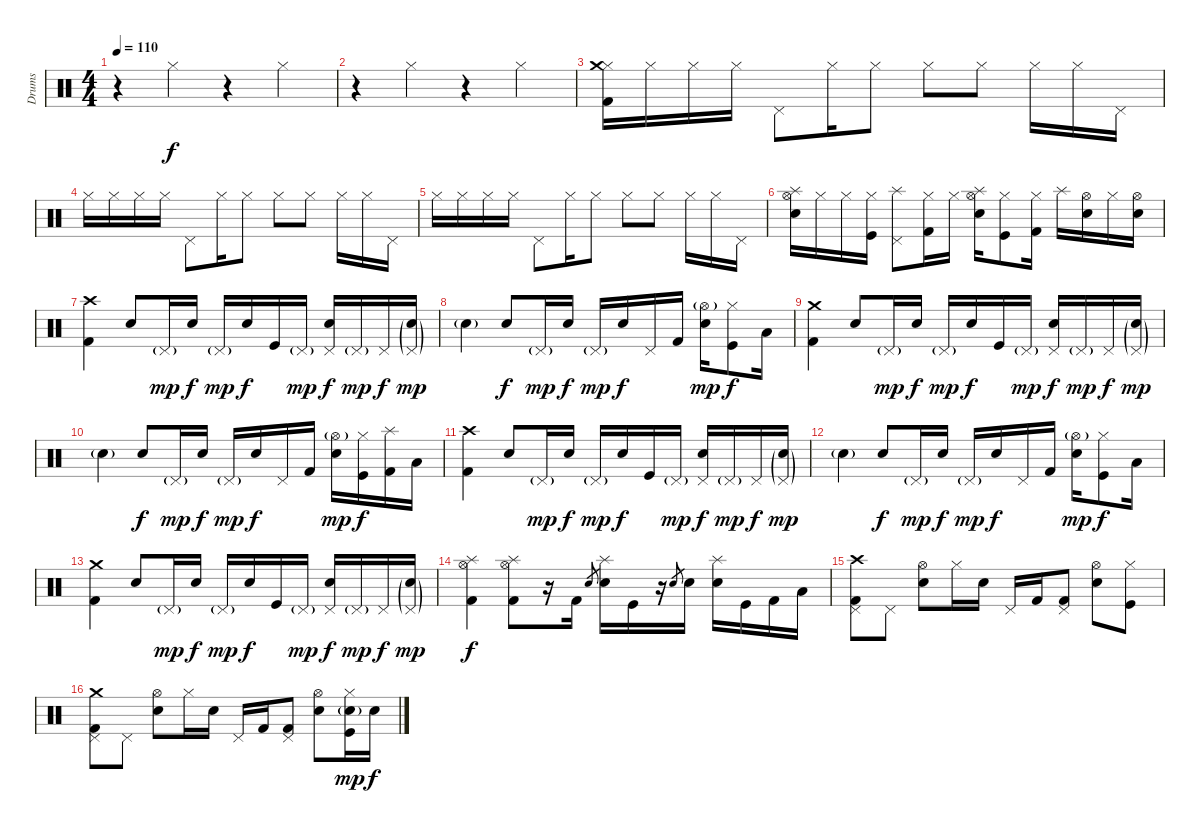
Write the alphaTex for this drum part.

\track ("Drums" "Drums") {instrument percussion}
\staff {score}
\articulation defaults
\ts (4 4)
\tempo 110
\clef neutral
\ks c
r.4{dy f} "Hi-Hat (closed)".4 r.4 "Hi-Hat (closed)".4 |
r.4 "Hi-Hat (closed)".4 r.4 "Hi-Hat (closed)".4 |
("Hi-Hat (closed)" "Crash medium (hit)" "Kick (hit) 2").16 "Hi-Hat (closed)".16 "Hi-Hat (closed)".16 "Hi-Hat (closed)".16 "Pedal Hi-Hat (hit)".8 "Hi-Hat (closed)".16 "Hi-Hat (closed)".8 "Hi-Hat (closed)".8 "Hi-Hat (closed)".8 "Hi-Hat (closed)".16 "Hi-Hat (closed)".16 "Pedal Hi-Hat (hit)".16 |
"Hi-Hat (closed)".16 "Hi-Hat (closed)".16 "Hi-Hat (closed)".16 "Hi-Hat (closed)".16 "Pedal Hi-Hat (hit)".8 "Hi-Hat (closed)".16 "Hi-Hat (closed)".8 "Hi-Hat (closed)".8 "Hi-Hat (closed)".8 "Hi-Hat (closed)".16 "Hi-Hat (closed)".16 "Pedal Hi-Hat (hit)".16 |
"Hi-Hat (closed)".16 "Hi-Hat (closed)".16 "Hi-Hat (closed)".16 "Hi-Hat (closed)".16 "Pedal Hi-Hat (hit)".8 "Hi-Hat (closed)".16 "Hi-Hat (closed)".8 "Hi-Hat (closed)".8 "Hi-Hat (closed)".8 "Hi-Hat (closed)".16 "Hi-Hat (closed)".16 "Pedal Hi-Hat (hit)".16 |
("Hi-Hat (open)" "Splash (hit)" "Electric Snare (hit)").16 "Hi-Hat (closed)".16 "Hi-Hat (closed)".16 ("Hi-Hat (closed)" "Kick (hit)").16 ("Pedal Hi-Hat (hit)" "Splash (hit)").8 ("Hi-Hat (closed)" "Kick (hit) 2").16 "Hi-Hat (closed)".16 ("Hi-Hat (open)" "Splash (hit)" "Electric Snare (hit)").16 ("Hi-Hat (closed)" "Kick (hit)").8 ("Hi-Hat (closed)" "Kick (hit) 2").16 "Splash (hit)".16 ("Hi-Hat (open)" "Electric Snare (hit)").16 "Hi-Hat (closed)".16 ("Hi-Hat (open)" "Electric Snare (hit)").16 |
("Crash high (hit)" "Kick (hit) 2").4 "Electric Snare (hit)".8 "Pedal Hi-Hat (hit)"{g}.16{dy mp} "Electric Snare (hit)".16{dy f} "Pedal Hi-Hat (hit)"{g}.16{dy mp} "Electric Snare (hit)".16{dy f} "Kick (hit)".16 "Pedal Hi-Hat (hit)"{g}.16{dy mp} ("Pedal Hi-Hat (hit)" "Electric Snare (hit)").16{dy f} "Pedal Hi-Hat (hit)"{g}.16{dy mp} "Pedal Hi-Hat (hit)".16{dy f} ("Pedal Hi-Hat (hit)"{g} "Electric Snare (hit)"{g}).16{dy mp} |
"Electric Snare (hit)"{g}.4 "Electric Snare (hit)".8{dy f} "Pedal Hi-Hat (hit)"{g}.16{dy mp} "Electric Snare (hit)".16{dy f} "Pedal Hi-Hat (hit)"{g}.16{dy mp} "Electric Snare (hit)".16{dy f} "Pedal Hi-Hat (hit)".16 "Kick (hit) 2".16 ("Hi-Hat (open)"{g} "Electric Snare (hit)").16{dy mp} ("Hi-Hat (closed)" "Kick (hit)").8{dy f} "Low Floor Tom (hit)".16 |
("Crash medium (hit)" "Kick (hit) 2").4 "Electric Snare (hit)".8 "Pedal Hi-Hat (hit)"{g}.16{dy mp} "Electric Snare (hit)".16{dy f} "Pedal Hi-Hat (hit)"{g}.16{dy mp} "Electric Snare (hit)".16{dy f} "Kick (hit)".16 "Pedal Hi-Hat (hit)"{g}.16{dy mp} ("Pedal Hi-Hat (hit)" "Electric Snare (hit)").16{dy f} "Pedal Hi-Hat (hit)"{g}.16{dy mp} "Pedal Hi-Hat (hit)".16{dy f} ("Pedal Hi-Hat (hit)"{g} "Electric Snare (hit)"{g}).16{dy mp} |
"Electric Snare (hit)"{g}.4 "Electric Snare (hit)".8{dy f} "Pedal Hi-Hat (hit)"{g}.16{dy mp} "Electric Snare (hit)".16{dy f} "Pedal Hi-Hat (hit)"{g}.16{dy mp} "Electric Snare (hit)".16{dy f} "Pedal Hi-Hat (hit)".16 "Kick (hit) 2".16 ("Hi-Hat (open)"{g} "Electric Snare (hit)").16{dy mp} ("Hi-Hat (closed)" "Kick (hit)").16{dy f} ("Splash (hit)" "Kick (hit) 2").16 "Low Floor Tom (hit)".16 |
("Crash high (hit)" "Kick (hit) 2").4 "Electric Snare (hit)".8 "Pedal Hi-Hat (hit)"{g}.16{dy mp} "Electric Snare (hit)".16{dy f} "Pedal Hi-Hat (hit)"{g}.16{dy mp} "Electric Snare (hit)".16{dy f} "Kick (hit)".16 "Pedal Hi-Hat (hit)"{g}.16{dy mp} ("Pedal Hi-Hat (hit)" "Electric Snare (hit)").16{dy f} "Pedal Hi-Hat (hit)"{g}.16{dy mp} "Pedal Hi-Hat (hit)".16{dy f} ("Pedal Hi-Hat (hit)"{g} "Electric Snare (hit)"{g}).16{dy mp} |
"Electric Snare (hit)"{g}.4 "Electric Snare (hit)".8{dy f} "Pedal Hi-Hat (hit)"{g}.16{dy mp} "Electric Snare (hit)".16{dy f} "Pedal Hi-Hat (hit)"{g}.16{dy mp} "Electric Snare (hit)".16{dy f} "Pedal Hi-Hat (hit)".16 "Kick (hit) 2".16 ("Hi-Hat (open)"{g} "Electric Snare (hit)").16{dy mp} ("Hi-Hat (closed)" "Kick (hit)").8{dy f} "Low Floor Tom (hit)".16 |
("Crash medium (hit)" "Kick (hit) 2").4 "Electric Snare (hit)".8 "Pedal Hi-Hat (hit)"{g}.16{dy mp} "Electric Snare (hit)".16{dy f} "Pedal Hi-Hat (hit)"{g}.16{dy mp} "Electric Snare (hit)".16{dy f} "Kick (hit)".16 "Pedal Hi-Hat (hit)"{g}.16{dy mp} ("Pedal Hi-Hat (hit)" "Electric Snare (hit)").16{dy f} "Pedal Hi-Hat (hit)"{g}.16{dy mp} "Pedal Hi-Hat (hit)".16{dy f} ("Pedal Hi-Hat (hit)"{g} "Electric Snare (hit)"{g}).16{dy mp} |
("Hi-Hat (open)" "Splash (hit)" "Kick (hit) 2").4{dy f} ("Hi-Hat (open)" "Splash (hit)" "Kick (hit) 2").8 r.16 "Kick (hit) 2".16 "Electric Snare (hit)"{sl}.8{gr} ("Splash (hit)" "Electric Snare (hit)").16 "Kick (hit)".16 r.16 "Electric Snare (hit)"{sl}.8{gr} "Electric Snare (hit)".16 ("Splash (hit)" "Electric Snare (hit)").16 "Kick (hit)".16 "Kick (hit) 2".16 "Low Floor Tom (hit)".16 |
("Pedal Hi-Hat (hit)" "Crash high (hit)" "Kick (hit) 2").8 "Pedal Hi-Hat (hit)".8 ("Hi-Hat (open)" "Electric Snare (hit)").8 "Hi-Hat (closed)".16 "Electric Snare (hit)".16 "Pedal Hi-Hat (hit)".16 "Kick (hit) 2".16 ("Pedal Hi-Hat (hit)" "Kick (hit) 2").8 ("Hi-Hat (open)" "Electric Snare (hit)").8 ("Hi-Hat (closed)" "Kick (hit)").8 |
("Pedal Hi-Hat (hit)" "Crash medium (hit)" "Kick (hit) 2").8 "Pedal Hi-Hat (hit)".8 ("Hi-Hat (open)" "Electric Snare (hit)").8 "Hi-Hat (closed)".16 "Electric Snare (hit)".16 "Pedal Hi-Hat (hit)".16 "Kick (hit) 2".16 ("Pedal Hi-Hat (hit)" "Kick (hit) 2").8 ("Hi-Hat (open)" "Electric Snare (hit)").8 ("Hi-Hat (closed)" "Electric Snare (hit)"{g} "Kick (hit)").16{dy mp} "Electric Snare (hit)".16{dy f}
